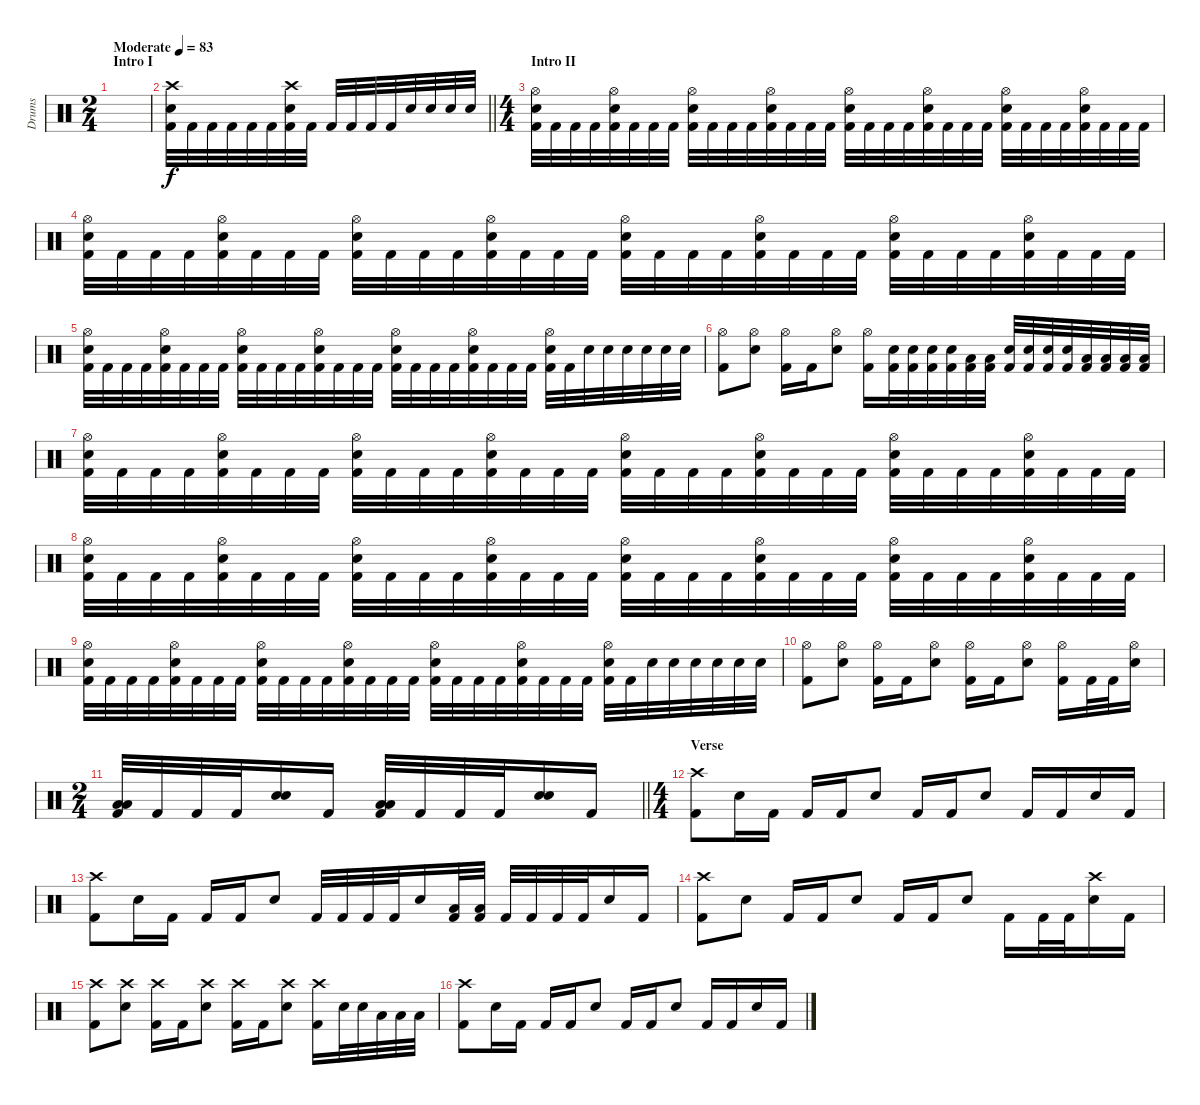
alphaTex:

\track ("Drums" "Drums") {instrument percussion}
\staff {score}
\articulation defaults
\ts (2 4)
\section ("" "Intro I")
\tempo (83 "Moderate")
\clef neutral
\ks c
|
\barLineRight lightlight
("Crash high (hit)" "Snare (hit) 2" "Kick (hit) 2").32 "Kick (hit) 2".32 "Kick (hit) 2".32 "Kick (hit) 2".32 "Kick (hit) 2".32 "Kick (hit) 2".32 ("Crash high (hit)" "Snare (hit) 2" "Kick (hit) 2").32 "Kick (hit) 2".32 "Kick (hit) 2".32 "Kick (hit) 2".32 "Kick (hit) 2".32 "Kick (hit) 2".32 "Snare (hit) 2".32 "Snare (hit) 2".32 "Snare (hit) 2".32 "Snare (hit) 2".32 |
\ts (4 4)
\section ("" "Intro II")
("Hi-Hat (open)" "Snare (hit) 2" "Kick (hit) 2").32 "Kick (hit) 2".32 "Kick (hit) 2".32 "Kick (hit) 2".32 ("Hi-Hat (open)" "Snare (hit) 2" "Kick (hit) 2").32 "Kick (hit) 2".32 "Kick (hit) 2".32 "Kick (hit) 2".32 ("Hi-Hat (open)" "Snare (hit) 2" "Kick (hit) 2").32 "Kick (hit) 2".32 "Kick (hit) 2".32 "Kick (hit) 2".32 ("Hi-Hat (open)" "Snare (hit) 2" "Kick (hit) 2").32 "Kick (hit) 2".32 "Kick (hit) 2".32 "Kick (hit) 2".32 ("Hi-Hat (open)" "Snare (hit) 2" "Kick (hit) 2").32 "Kick (hit) 2".32 "Kick (hit) 2".32 "Kick (hit) 2".32 ("Hi-Hat (open)" "Snare (hit) 2" "Kick (hit) 2").32 "Kick (hit) 2".32 "Kick (hit) 2".32 "Kick (hit) 2".32 ("Hi-Hat (open)" "Snare (hit) 2" "Kick (hit) 2").32 "Kick (hit) 2".32 "Kick (hit) 2".32 "Kick (hit) 2".32 ("Hi-Hat (open)" "Snare (hit) 2" "Kick (hit) 2").32 "Kick (hit) 2".32 "Kick (hit) 2".32 "Kick (hit) 2".32 |
("Hi-Hat (open)" "Snare (hit) 2" "Kick (hit) 2").32 "Kick (hit) 2".32 "Kick (hit) 2".32 "Kick (hit) 2".32 ("Hi-Hat (open)" "Snare (hit) 2" "Kick (hit) 2").32 "Kick (hit) 2".32 "Kick (hit) 2".32 "Kick (hit) 2".32 ("Hi-Hat (open)" "Snare (hit) 2" "Kick (hit) 2").32 "Kick (hit) 2".32 "Kick (hit) 2".32 "Kick (hit) 2".32 ("Hi-Hat (open)" "Snare (hit) 2" "Kick (hit) 2").32 "Kick (hit) 2".32 "Kick (hit) 2".32 "Kick (hit) 2".32 ("Hi-Hat (open)" "Snare (hit) 2" "Kick (hit) 2").32 "Kick (hit) 2".32 "Kick (hit) 2".32 "Kick (hit) 2".32 ("Hi-Hat (open)" "Snare (hit) 2" "Kick (hit) 2").32 "Kick (hit) 2".32 "Kick (hit) 2".32 "Kick (hit) 2".32 ("Hi-Hat (open)" "Snare (hit) 2" "Kick (hit) 2").32 "Kick (hit) 2".32 "Kick (hit) 2".32 "Kick (hit) 2".32 ("Hi-Hat (open)" "Snare (hit) 2" "Kick (hit) 2").32 "Kick (hit) 2".32 "Kick (hit) 2".32 "Kick (hit) 2".32 |
("Hi-Hat (open)" "Snare (hit) 2" "Kick (hit) 2").32 "Kick (hit) 2".32 "Kick (hit) 2".32 "Kick (hit) 2".32 ("Hi-Hat (open)" "Snare (hit) 2" "Kick (hit) 2").32 "Kick (hit) 2".32 "Kick (hit) 2".32 "Kick (hit) 2".32 ("Hi-Hat (open)" "Snare (hit) 2" "Kick (hit) 2").32 "Kick (hit) 2".32 "Kick (hit) 2".32 "Kick (hit) 2".32 ("Hi-Hat (open)" "Snare (hit) 2" "Kick (hit) 2").32 "Kick (hit) 2".32 "Kick (hit) 2".32 "Kick (hit) 2".32 ("Hi-Hat (open)" "Snare (hit) 2" "Kick (hit) 2").32 "Kick (hit) 2".32 "Kick (hit) 2".32 "Kick (hit) 2".32 ("Hi-Hat (open)" "Snare (hit) 2" "Kick (hit) 2").32 "Kick (hit) 2".32 "Kick (hit) 2".32 "Kick (hit) 2".32 ("Hi-Hat (open)" "Snare (hit) 2" "Kick (hit) 2").32 "Kick (hit) 2".32 "Snare (hit) 2".32 "Snare (hit) 2".32 "Snare (hit) 2".32 "Snare (hit) 2".32 "Snare (hit) 2".32 "Snare (hit) 2".32 |
("Hi-Hat (open)" "Kick (hit) 2").8 ("Hi-Hat (open)" "Snare (hit) 2").8 ("Hi-Hat (open)" "Kick (hit) 2").16 "Kick (hit) 2".16 ("Hi-Hat (open)" "Snare (hit) 2").8 ("Hi-Hat (open)" "Kick (hit) 2").16 ("Snare (hit) 2" "Kick (hit) 2").32 ("Snare (hit) 2" "Kick (hit) 2").32 ("Snare (hit) 2" "Kick (hit) 2").32 ("Snare (hit) 2" "Kick (hit) 2").32 ("Low Floor Tom (hit)" "Kick (hit) 2").32 ("Low Floor Tom (hit)" "Kick (hit) 2").32 ("Snare (hit) 2" "Kick (hit) 2").32 ("Snare (hit) 2" "Kick (hit) 2").32 ("Snare (hit) 2" "Kick (hit) 2").32 ("Snare (hit) 2" "Kick (hit) 2").32 ("Low Floor Tom (hit)" "Kick (hit) 2").32 ("Low Floor Tom (hit)" "Kick (hit) 2").32 ("Low Tom (hit)" "Kick (hit) 2").32 ("Low Tom (hit)" "Kick (hit) 2").32 |
("Hi-Hat (open)" "Snare (hit) 2" "Kick (hit) 2").32 "Kick (hit) 2".32 "Kick (hit) 2".32 "Kick (hit) 2".32 ("Hi-Hat (open)" "Snare (hit) 2" "Kick (hit) 2").32 "Kick (hit) 2".32 "Kick (hit) 2".32 "Kick (hit) 2".32 ("Hi-Hat (open)" "Snare (hit) 2" "Kick (hit) 2").32 "Kick (hit) 2".32 "Kick (hit) 2".32 "Kick (hit) 2".32 ("Hi-Hat (open)" "Snare (hit) 2" "Kick (hit) 2").32 "Kick (hit) 2".32 "Kick (hit) 2".32 "Kick (hit) 2".32 ("Hi-Hat (open)" "Snare (hit) 2" "Kick (hit) 2").32 "Kick (hit) 2".32 "Kick (hit) 2".32 "Kick (hit) 2".32 ("Hi-Hat (open)" "Snare (hit) 2" "Kick (hit) 2").32 "Kick (hit) 2".32 "Kick (hit) 2".32 "Kick (hit) 2".32 ("Hi-Hat (open)" "Snare (hit) 2" "Kick (hit) 2").32 "Kick (hit) 2".32 "Kick (hit) 2".32 "Kick (hit) 2".32 ("Hi-Hat (open)" "Snare (hit) 2" "Kick (hit) 2").32 "Kick (hit) 2".32 "Kick (hit) 2".32 "Kick (hit) 2".32 |
("Hi-Hat (open)" "Snare (hit) 2" "Kick (hit) 2").32 "Kick (hit) 2".32 "Kick (hit) 2".32 "Kick (hit) 2".32 ("Hi-Hat (open)" "Snare (hit) 2" "Kick (hit) 2").32 "Kick (hit) 2".32 "Kick (hit) 2".32 "Kick (hit) 2".32 ("Hi-Hat (open)" "Snare (hit) 2" "Kick (hit) 2").32 "Kick (hit) 2".32 "Kick (hit) 2".32 "Kick (hit) 2".32 ("Hi-Hat (open)" "Snare (hit) 2" "Kick (hit) 2").32 "Kick (hit) 2".32 "Kick (hit) 2".32 "Kick (hit) 2".32 ("Hi-Hat (open)" "Snare (hit) 2" "Kick (hit) 2").32 "Kick (hit) 2".32 "Kick (hit) 2".32 "Kick (hit) 2".32 ("Hi-Hat (open)" "Snare (hit) 2" "Kick (hit) 2").32 "Kick (hit) 2".32 "Kick (hit) 2".32 "Kick (hit) 2".32 ("Hi-Hat (open)" "Snare (hit) 2" "Kick (hit) 2").32 "Kick (hit) 2".32 "Kick (hit) 2".32 "Kick (hit) 2".32 ("Hi-Hat (open)" "Snare (hit) 2" "Kick (hit) 2").32 "Kick (hit) 2".32 "Kick (hit) 2".32 "Kick (hit) 2".32 |
("Hi-Hat (open)" "Snare (hit) 2" "Kick (hit) 2").32 "Kick (hit) 2".32 "Kick (hit) 2".32 "Kick (hit) 2".32 ("Hi-Hat (open)" "Snare (hit) 2" "Kick (hit) 2").32 "Kick (hit) 2".32 "Kick (hit) 2".32 "Kick (hit) 2".32 ("Hi-Hat (open)" "Snare (hit) 2" "Kick (hit) 2").32 "Kick (hit) 2".32 "Kick (hit) 2".32 "Kick (hit) 2".32 ("Hi-Hat (open)" "Snare (hit) 2" "Kick (hit) 2").32 "Kick (hit) 2".32 "Kick (hit) 2".32 "Kick (hit) 2".32 ("Hi-Hat (open)" "Snare (hit) 2" "Kick (hit) 2").32 "Kick (hit) 2".32 "Kick (hit) 2".32 "Kick (hit) 2".32 ("Hi-Hat (open)" "Snare (hit) 2" "Kick (hit) 2").32 "Kick (hit) 2".32 "Kick (hit) 2".32 "Kick (hit) 2".32 ("Hi-Hat (open)" "Snare (hit) 2" "Kick (hit) 2").32 "Kick (hit) 2".32 "Snare (hit) 2".32 "Snare (hit) 2".32 "Snare (hit) 2".32 "Snare (hit) 2".32 "Snare (hit) 2".32 "Snare (hit) 2".32 |
("Hi-Hat (open)" "Kick (hit) 2").8 ("Hi-Hat (open)" "Snare (hit) 2").8 ("Hi-Hat (open)" "Kick (hit) 2").16 "Kick (hit) 2".16 ("Hi-Hat (open)" "Snare (hit) 2").8 ("Hi-Hat (open)" "Kick (hit) 2").16 "Kick (hit) 2".16 ("Hi-Hat (open)" "Snare (hit) 2").8 ("Hi-Hat (open)" "Kick (hit) 2").16 "Kick (hit) 2".32 "Kick (hit) 2".32 ("Hi-Hat (open)" "Snare (hit) 2").16 |
\ts (2 4)
\barLineRight lightlight
("Low Tom (hit)" "Low Floor Tom (hit)" "Kick (hit) 2").32{bd 60} "Kick (hit) 2".32 "Kick (hit) 2".32 "Kick (hit) 2".32 ("Snare (hit) 2" "Snare (hit) 2").16 "Kick (hit) 2".16 ("Low Tom (hit)" "Low Floor Tom (hit)" "Kick (hit) 2").32{bd 60} "Kick (hit) 2".32 "Kick (hit) 2".32 "Kick (hit) 2".32 ("Snare (hit) 2" "Snare (hit) 2").16 "Kick (hit) 2".16 |
\ts (4 4)
\section ("" "Verse")
("Crash high (hit)" "Kick (hit) 2").8 "Snare (hit) 2".16 "Kick (hit) 2".16 "Kick (hit) 2".16 "Kick (hit) 2".16 "Snare (hit) 2".8 "Kick (hit) 2".16 "Kick (hit) 2".16 "Snare (hit) 2".8 "Kick (hit) 2".16 "Kick (hit) 2".16 "Snare (hit) 2".16 "Kick (hit) 2".16 |
("Crash high (hit)" "Kick (hit) 2").8 "Snare (hit) 2".16 "Kick (hit) 2".16 "Kick (hit) 2".16 "Kick (hit) 2".16 "Snare (hit) 2".8 "Kick (hit) 2".32 "Kick (hit) 2".32 "Kick (hit) 2".32 "Kick (hit) 2".32 "Snare (hit) 2".16 ("Low Floor Tom (hit)" "Kick (hit) 2").32 ("Low Floor Tom (hit)" "Kick (hit) 2").32 "Kick (hit) 2".32 "Kick (hit) 2".32 "Kick (hit) 2".32 "Kick (hit) 2".32 "Snare (hit) 2".16 "Kick (hit) 2".16 |
("Crash high (hit)" "Kick (hit) 2").8 "Snare (hit) 2".8 "Kick (hit) 2".16 "Kick (hit) 2".16 "Snare (hit) 2".8 "Kick (hit) 2".16 "Kick (hit) 2".16 "Snare (hit) 2".8 "Kick (hit) 2".16 "Kick (hit) 2".32 "Kick (hit) 2".32 ("Crash high (hit)" "Snare (hit) 2").16 "Kick (hit) 2".16 |
("Crash high (hit)" "Kick (hit) 2").8 ("Crash high (hit)" "Snare (hit) 2").8 ("Crash high (hit)" "Kick (hit) 2").16 "Kick (hit) 2".16 ("Crash high (hit)" "Snare (hit) 2").8 ("Crash high (hit)" "Kick (hit) 2").16 "Kick (hit) 2".16 ("Crash high (hit)" "Snare (hit) 2").8 ("Crash high (hit)" "Kick (hit) 2").16 "Snare (hit) 2".32 "Snare (hit) 2".32 "Low Floor Tom (hit)".32 "Low Floor Tom (hit)".32 "Low Floor Tom (hit)".32 |
("Crash high (hit)" "Kick (hit) 2").8 "Snare (hit) 2".16 "Kick (hit) 2".16 "Kick (hit) 2".16 "Kick (hit) 2".16 "Snare (hit) 2".8 "Kick (hit) 2".16 "Kick (hit) 2".16 "Snare (hit) 2".8 "Kick (hit) 2".16 "Kick (hit) 2".16 "Snare (hit) 2".16 "Kick (hit) 2".16
